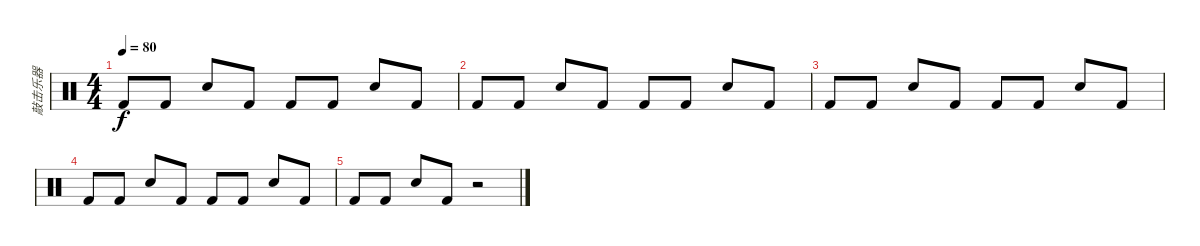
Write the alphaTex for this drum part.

\track ("敲击乐器" "敲击乐器") {instrument percussion}
\staff {score}
\articulation defaults
\ts (4 4)
\tempo 80
\clef neutral
\ks c "Kick (hit) 2".8{dy f} "Kick (hit) 2".8 "Snare (hit) 2".8 "Kick (hit) 2".8 "Kick (hit) 2".8 "Kick (hit) 2".8 "Snare (hit) 2".8 "Kick (hit) 2".8
|
"Kick (hit) 2".8 "Kick (hit) 2".8 "Snare (hit) 2".8 "Kick (hit) 2".8 "Kick (hit) 2".8 "Kick (hit) 2".8 "Snare (hit) 2".8 "Kick (hit) 2".8 |
"Kick (hit) 2".8 "Kick (hit) 2".8 "Snare (hit) 2".8 "Kick (hit) 2".8 "Kick (hit) 2".8 "Kick (hit) 2".8 "Snare (hit) 2".8 "Kick (hit) 2".8 |
"Kick (hit) 2".8 "Kick (hit) 2".8 "Snare (hit) 2".8 "Kick (hit) 2".8 "Kick (hit) 2".8 "Kick (hit) 2".8 "Snare (hit) 2".8 "Kick (hit) 2".8 |
"Kick (hit) 2".8 "Kick (hit) 2".8 "Snare (hit) 2".8 "Kick (hit) 2".8 r.2
